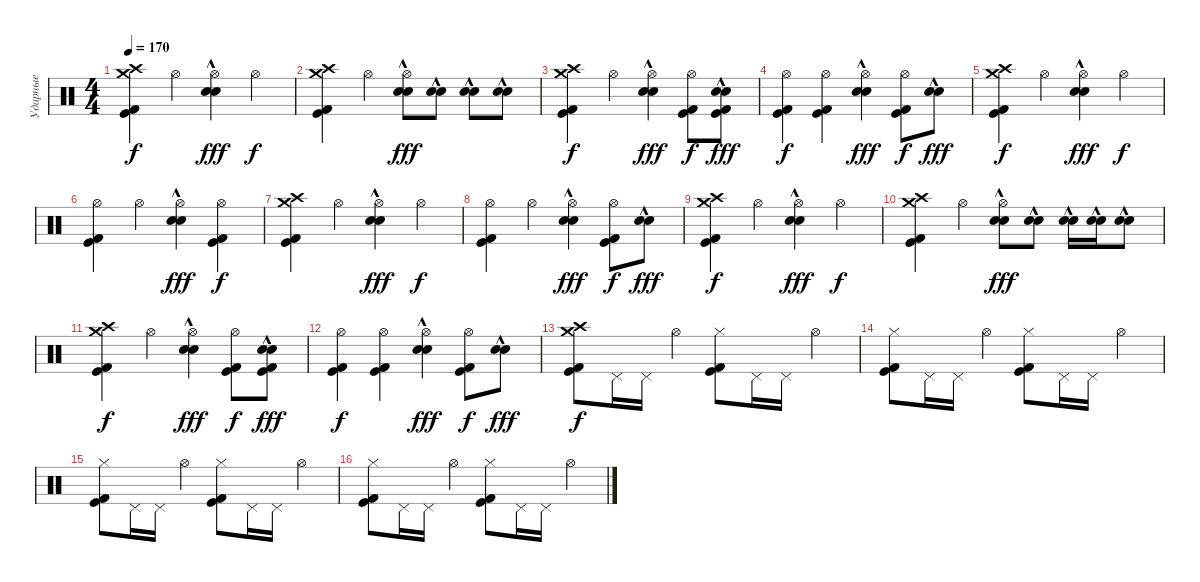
\track ("Ударные" "Ударные") {instrument percussion}
\staff {score}
\articulation defaults
\ts (4 4)
\tempo 170
\clef neutral
\ks c
("Crash high (hit)" "Kick (hit)" "Kick (hit) 2" "Crash medium (hit)").4{dy f} "Hi-Hat (open)".4 ("Hi-Hat (open)" "Snare (hit) 2"{hac} "Electric Snare (hit)"{hac}).4{dy fff} "Hi-Hat (open)".4{dy f} |
("Crash high (hit)" "Kick (hit)" "Kick (hit) 2" "Crash medium (hit)").4 "Hi-Hat (open)".4 ("Hi-Hat (open)" "Snare (hit) 2"{hac} "Electric Snare (hit)"{hac}).8{dy fff} ("Snare (hit) 2"{hac} "Electric Snare (hit)"{hac}).8 ("Snare (hit) 2"{hac} "Electric Snare (hit)"{hac}).8 ("Snare (hit) 2"{hac} "Electric Snare (hit)"{hac}).8 |
("Crash high (hit)" "Kick (hit)" "Kick (hit) 2" "Crash medium (hit)").4{dy f} "Hi-Hat (open)".4 ("Hi-Hat (open)" "Snare (hit) 2"{hac} "Electric Snare (hit)"{hac}).4{dy fff} ("Hi-Hat (open)" "Kick (hit)" "Kick (hit) 2").8{dy f} ("Kick (hit)" "Kick (hit) 2" "Snare (hit) 2"{hac} "Electric Snare (hit)"{hac}).8{dy fff} |
("Hi-Hat (open)" "Kick (hit)" "Kick (hit) 2").4{dy f} ("Hi-Hat (open)" "Kick (hit)" "Kick (hit) 2").4 ("Hi-Hat (open)" "Snare (hit) 2"{hac} "Electric Snare (hit)"{hac}).4{dy fff} ("Hi-Hat (open)" "Kick (hit)" "Kick (hit) 2").8{dy f} ("Snare (hit) 2"{hac} "Electric Snare (hit)"{hac}).8{dy fff} |
("Crash high (hit)" "Kick (hit)" "Kick (hit) 2" "Crash medium (hit)").4{dy f} "Hi-Hat (open)".4 ("Hi-Hat (open)" "Snare (hit) 2"{hac} "Electric Snare (hit)"{hac}).4{dy fff} "Hi-Hat (open)".4{dy f} |
("Hi-Hat (open)" "Kick (hit)" "Kick (hit) 2").4 "Hi-Hat (open)".4 ("Hi-Hat (open)" "Snare (hit) 2"{hac} "Electric Snare (hit)"{hac}).4{dy fff} ("Hi-Hat (open)" "Kick (hit)" "Kick (hit) 2").4{dy f} |
("Crash high (hit)" "Kick (hit)" "Kick (hit) 2" "Crash medium (hit)").4 "Hi-Hat (open)".4 ("Hi-Hat (open)" "Snare (hit) 2"{hac} "Electric Snare (hit)"{hac}).4{dy fff} "Hi-Hat (open)".4{dy f} |
("Hi-Hat (open)" "Kick (hit)" "Kick (hit) 2").4 "Hi-Hat (open)".4 ("Hi-Hat (open)" "Snare (hit) 2"{hac} "Electric Snare (hit)"{hac}).4{dy fff} ("Hi-Hat (open)" "Kick (hit)" "Kick (hit) 2").8{dy f} ("Snare (hit) 2"{hac} "Electric Snare (hit)"{hac}).8{dy fff} |
("Crash high (hit)" "Kick (hit)" "Kick (hit) 2" "Crash medium (hit)").4{dy f} "Hi-Hat (open)".4 ("Hi-Hat (open)" "Snare (hit) 2"{hac} "Electric Snare (hit)"{hac}).4{dy fff} "Hi-Hat (open)".4{dy f} |
("Crash high (hit)" "Kick (hit)" "Kick (hit) 2" "Crash medium (hit)").4 "Hi-Hat (open)".4 ("Hi-Hat (open)" "Snare (hit) 2"{hac} "Electric Snare (hit)"{hac}).8{dy fff} ("Snare (hit) 2"{hac} "Electric Snare (hit)"{hac}).8 ("Snare (hit) 2"{hac} "Electric Snare (hit)"{hac}).16 ("Snare (hit) 2"{hac} "Electric Snare (hit)"{hac}).16 ("Snare (hit) 2"{hac} "Electric Snare (hit)"{hac}).8 |
("Crash high (hit)" "Kick (hit)" "Kick (hit) 2" "Crash medium (hit)").4{dy f} "Hi-Hat (open)".4 ("Hi-Hat (open)" "Snare (hit) 2"{hac} "Electric Snare (hit)"{hac}).4{dy fff} ("Hi-Hat (open)" "Kick (hit)" "Kick (hit) 2").8{dy f} ("Kick (hit)" "Kick (hit) 2" "Snare (hit) 2"{hac} "Electric Snare (hit)"{hac}).8{dy fff} |
("Hi-Hat (open)" "Kick (hit)" "Kick (hit) 2").4{dy f} ("Hi-Hat (open)" "Kick (hit)" "Kick (hit) 2").4 ("Hi-Hat (open)" "Snare (hit) 2"{hac} "Electric Snare (hit)"{hac}).4{dy fff} ("Hi-Hat (open)" "Kick (hit)" "Kick (hit) 2").8{dy f} ("Snare (hit) 2"{hac} "Electric Snare (hit)"{hac}).8{dy fff} |
("Crash high (hit)" "Kick (hit)" "Kick (hit) 2" "Crash medium (hit)").8{dy f} "Pedal Hi-Hat (hit)".16 "Pedal Hi-Hat (hit)".16 "Hi-Hat (open)".4 ("Hi-Hat (closed)" "Kick (hit)" "Kick (hit) 2").8 "Pedal Hi-Hat (hit)".16 "Pedal Hi-Hat (hit)".16 "Hi-Hat (open)".4 |
("Hi-Hat (closed)" "Kick (hit)" "Kick (hit) 2").8 "Pedal Hi-Hat (hit)".16 "Pedal Hi-Hat (hit)".16 "Hi-Hat (open)".4 ("Hi-Hat (closed)" "Kick (hit)" "Kick (hit) 2").8 "Pedal Hi-Hat (hit)".16 "Pedal Hi-Hat (hit)".16 "Hi-Hat (open)".4 |
("Hi-Hat (closed)" "Kick (hit)" "Kick (hit) 2").8 "Pedal Hi-Hat (hit)".16 "Pedal Hi-Hat (hit)".16 "Hi-Hat (open)".4 ("Hi-Hat (closed)" "Kick (hit)" "Kick (hit) 2").8 "Pedal Hi-Hat (hit)".16 "Pedal Hi-Hat (hit)".16 "Hi-Hat (open)".4 |
("Hi-Hat (closed)" "Kick (hit)" "Kick (hit) 2").8 "Pedal Hi-Hat (hit)".16 "Pedal Hi-Hat (hit)".16 "Hi-Hat (open)".4 ("Hi-Hat (closed)" "Kick (hit)" "Kick (hit) 2").8 "Pedal Hi-Hat (hit)".16 "Pedal Hi-Hat (hit)".16 "Hi-Hat (open)".4
